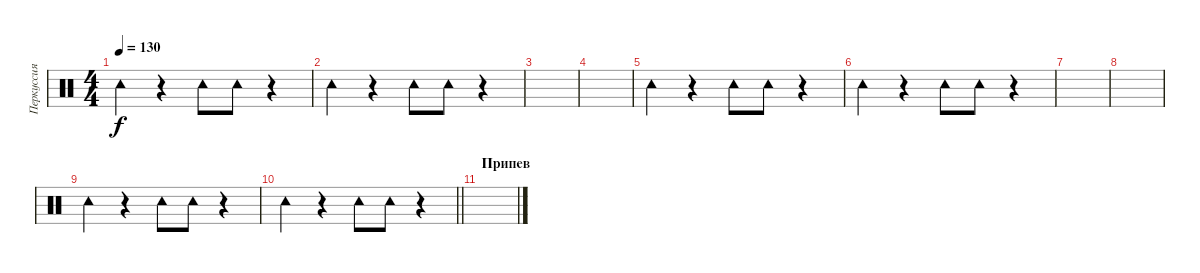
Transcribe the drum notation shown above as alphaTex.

\track ("Перкуссия" "Перкуссия") {instrument percussion}
\staff {score}
\articulation defaults
\ts (4 4)
\tempo 130
\clef neutral
\ks c "Tambourine (hit)".4{dy f}
r.4 "Tambourine (hit)".8 "Tambourine (hit)".8 r.4 |
"Tambourine (hit)".4 r.4 "Tambourine (hit)".8 "Tambourine (hit)".8 r.4 |
|
|
"Tambourine (hit)".4 r.4 "Tambourine (hit)".8 "Tambourine (hit)".8 r.4 |
"Tambourine (hit)".4 r.4 "Tambourine (hit)".8 "Tambourine (hit)".8 r.4 |
|
|
"Tambourine (hit)".4 r.4 "Tambourine (hit)".8 "Tambourine (hit)".8 r.4 |
\barLineRight lightlight "Tambourine (hit)".4
r.4 "Tambourine (hit)".8 "Tambourine (hit)".8 r.4 |
\section ("" "Припев")
